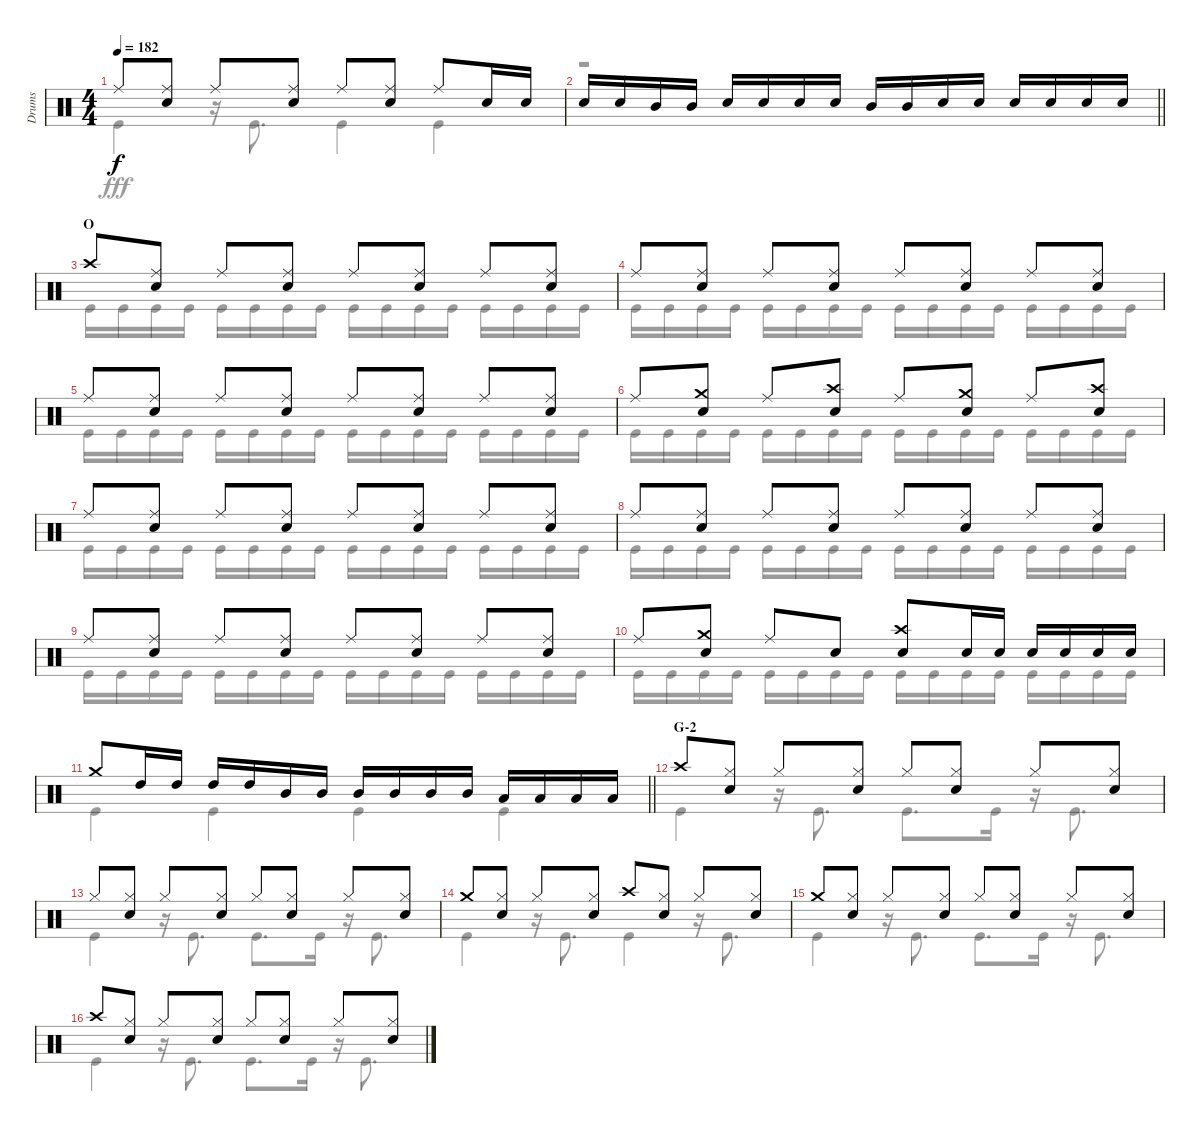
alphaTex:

\track ("Drums" "Drums") {instrument percussion}
\staff {score}
\articulation defaults
\voice
\ts (4 4)
\tempo 182
\clef neutral
\ks c "Ride (middle)".8{dy f}
("Ride (middle)" "Snare (hit) 2").8 "Ride (middle)".8 ("Ride (middle)" "Snare (hit) 2").8 "Ride (middle)".8 ("Ride (middle)" "Snare (hit) 2").8 "Ride (middle)".8 "Snare (hit) 2".16 "Snare (hit) 2".16 |
\barLineRight lightlight "Snare (hit) 2".16 "Snare (hit) 2".16 "Mid Tom (hit)".16 "Mid Tom (hit)".16 "Snare (hit) 2".16 "Snare (hit) 2".16 "Snare (hit) 2".16 "Snare (hit) 2".16 "Mid Tom (hit)".16 "Mid Tom (hit)".16 "Snare (hit) 2".16 "Snare (hit) 2".16 "Snare (hit) 2".16 "Snare (hit) 2".16 "Snare (hit) 2".16 "Snare (hit) 2".16
|
\section ("" "O")
"Crash high (hit)".8 ("Ride (middle)" "Snare (hit) 2").8 "Ride (middle)".8 ("Ride (middle)" "Snare (hit) 2").8 "Ride (middle)".8 ("Ride (middle)" "Snare (hit) 2").8 "Ride (middle)".8 ("Ride (middle)" "Snare (hit) 2").8 |
"Ride (middle)".8 ("Ride (middle)" "Snare (hit) 2").8 "Ride (middle)".8 ("Ride (middle)" "Snare (hit) 2").8 "Ride (middle)".8 ("Ride (middle)" "Snare (hit) 2").8 "Ride (middle)".8 ("Ride (middle)" "Snare (hit) 2").8 |
"Ride (middle)".8 ("Ride (middle)" "Snare (hit) 2").8 "Ride (middle)".8 ("Ride (middle)" "Snare (hit) 2").8 "Ride (middle)".8 ("Ride (middle)" "Snare (hit) 2").8 "Ride (middle)".8 ("Ride (middle)" "Snare (hit) 2").8 |
"Ride (middle)".8 ("Crash medium (hit)" "Snare (hit) 2").8 "Ride (middle)".8 ("Crash high (hit)" "Snare (hit) 2").8 "Ride (middle)".8 ("Crash medium (hit)" "Snare (hit) 2").8 "Ride (middle)".8 ("Crash high (hit)" "Snare (hit) 2").8 |
"Ride (middle)".8 ("Ride (middle)" "Snare (hit) 2").8 "Ride (middle)".8 ("Ride (middle)" "Snare (hit) 2").8 "Ride (middle)".8 ("Ride (middle)" "Snare (hit) 2").8 "Ride (middle)".8 ("Ride (middle)" "Snare (hit) 2").8 |
"Ride (middle)".8 ("Ride (middle)" "Snare (hit) 2").8 "Ride (middle)".8 ("Ride (middle)" "Snare (hit) 2").8 "Ride (middle)".8 ("Ride (middle)" "Snare (hit) 2").8 "Ride (middle)".8 ("Ride (middle)" "Snare (hit) 2").8 |
"Ride (middle)".8 ("Ride (middle)" "Snare (hit) 2").8 "Ride (middle)".8 ("Ride (middle)" "Snare (hit) 2").8 "Ride (middle)".8 ("Ride (middle)" "Snare (hit) 2").8 "Ride (middle)".8 ("Ride (middle)" "Snare (hit) 2").8 |
"Ride (middle)".8 ("Crash medium (hit)" "Snare (hit) 2").8 "Ride (middle)".8 "Snare (hit) 2".8 ("Crash high (hit)" "Snare (hit) 2").8 "Snare (hit) 2".16 "Snare (hit) 2".16 "Snare (hit) 2".16 "Snare (hit) 2".16 "Snare (hit) 2".16 "Snare (hit) 2".16 |
\barLineRight lightlight "Crash medium (hit)".8 "High Tom (hit)".16 "High Tom (hit)".16 "High Tom (hit)".16 "High Tom (hit)".16 "Mid Tom (hit)".16 "Mid Tom (hit)".16 "Mid Tom (hit)".16 "Mid Tom (hit)".16 "Mid Tom (hit)".16 "Mid Tom (hit)".16 "Low Tom (hit)".16 "Low Tom (hit)".16 "Low Tom (hit)".16 "Low Tom (hit)".16
|
\section ("" "G-2")
"Crash high (hit)".8 ("Hi-Hat (closed)" "Snare (hit) 2").8 "Hi-Hat (closed)".8 ("Hi-Hat (closed)" "Snare (hit) 2").8 "Hi-Hat (closed)".8 ("Hi-Hat (closed)" "Snare (hit) 2").8 "Hi-Hat (closed)".8 ("Hi-Hat (closed)" "Snare (hit) 2").8 |
"Hi-Hat (closed)".8 ("Hi-Hat (closed)" "Snare (hit) 2").8 "Hi-Hat (closed)".8 ("Hi-Hat (closed)" "Snare (hit) 2").8 "Hi-Hat (closed)".8 ("Hi-Hat (closed)" "Snare (hit) 2").8 "Hi-Hat (closed)".8 ("Hi-Hat (closed)" "Snare (hit) 2").8 |
"Crash medium (hit)".8 ("Hi-Hat (closed)" "Snare (hit) 2").8 "Hi-Hat (closed)".8 ("Hi-Hat (closed)" "Snare (hit) 2").8 "Crash high (hit)".8 ("Hi-Hat (closed)" "Snare (hit) 2").8 "Hi-Hat (closed)".8 ("Hi-Hat (closed)" "Snare (hit) 2").8 |
"Crash medium (hit)".8 ("Hi-Hat (closed)" "Snare (hit) 2").8 "Hi-Hat (closed)".8 ("Hi-Hat (closed)" "Snare (hit) 2").8 "Hi-Hat (closed)".8 ("Hi-Hat (closed)" "Snare (hit) 2").8 "Hi-Hat (closed)".8 ("Hi-Hat (closed)" "Snare (hit) 2").8 |
"Crash high (hit)".8 ("Hi-Hat (closed)" "Snare (hit) 2").8 "Hi-Hat (closed)".8 ("Hi-Hat (closed)" "Snare (hit) 2").8 "Hi-Hat (closed)".8 ("Hi-Hat (closed)" "Snare (hit) 2").8 "Hi-Hat (closed)".8 ("Hi-Hat (closed)" "Snare (hit) 2").8
\voice
\clef neutral
\ottava regular
\simile none
\ks c "Kick (hit)".4{dy fff}
r.16 "Kick (hit)".8{d} "Kick (hit)".4 "Kick (hit)".4 |
\barLineRight lightlight
r.1 |
"Kick (hit)".16 "Kick (hit)".16 "Kick (hit)".16 "Kick (hit)".16 "Kick (hit)".16 "Kick (hit)".16 "Kick (hit)".16 "Kick (hit)".16 "Kick (hit)".16 "Kick (hit)".16 "Kick (hit)".16 "Kick (hit)".16 "Kick (hit)".16 "Kick (hit)".16 "Kick (hit)".16 "Kick (hit)".16 |
"Kick (hit)".16 "Kick (hit)".16 "Kick (hit)".16 "Kick (hit)".16 "Kick (hit)".16 "Kick (hit)".16 "Kick (hit)".16 "Kick (hit)".16 "Kick (hit)".16 "Kick (hit)".16 "Kick (hit)".16 "Kick (hit)".16 "Kick (hit)".16 "Kick (hit)".16 "Kick (hit)".16 "Kick (hit)".16 |
"Kick (hit)".16 "Kick (hit)".16 "Kick (hit)".16 "Kick (hit)".16 "Kick (hit)".16 "Kick (hit)".16 "Kick (hit)".16 "Kick (hit)".16 "Kick (hit)".16 "Kick (hit)".16 "Kick (hit)".16 "Kick (hit)".16 "Kick (hit)".16 "Kick (hit)".16 "Kick (hit)".16 "Kick (hit)".16 |
"Kick (hit)".16 "Kick (hit)".16 "Kick (hit)".16 "Kick (hit)".16 "Kick (hit)".16 "Kick (hit)".16 "Kick (hit)".16 "Kick (hit)".16 "Kick (hit)".16 "Kick (hit)".16 "Kick (hit)".16 "Kick (hit)".16 "Kick (hit)".16 "Kick (hit)".16 "Kick (hit)".16 "Kick (hit)".16 |
"Kick (hit)".16 "Kick (hit)".16 "Kick (hit)".16 "Kick (hit)".16 "Kick (hit)".16 "Kick (hit)".16 "Kick (hit)".16 "Kick (hit)".16 "Kick (hit)".16 "Kick (hit)".16 "Kick (hit)".16 "Kick (hit)".16 "Kick (hit)".16 "Kick (hit)".16 "Kick (hit)".16 "Kick (hit)".16 |
"Kick (hit)".16 "Kick (hit)".16 "Kick (hit)".16 "Kick (hit)".16 "Kick (hit)".16 "Kick (hit)".16 "Kick (hit)".16 "Kick (hit)".16 "Kick (hit)".16 "Kick (hit)".16 "Kick (hit)".16 "Kick (hit)".16 "Kick (hit)".16 "Kick (hit)".16 "Kick (hit)".16 "Kick (hit)".16 |
"Kick (hit)".16 "Kick (hit)".16 "Kick (hit)".16 "Kick (hit)".16 "Kick (hit)".16 "Kick (hit)".16 "Kick (hit)".16 "Kick (hit)".16 "Kick (hit)".16 "Kick (hit)".16 "Kick (hit)".16 "Kick (hit)".16 "Kick (hit)".16 "Kick (hit)".16 "Kick (hit)".16 "Kick (hit)".16 |
"Kick (hit)".16 "Kick (hit)".16 "Kick (hit)".16 "Kick (hit)".16 "Kick (hit)".16 "Kick (hit)".16 "Kick (hit)".16 "Kick (hit)".16 "Kick (hit)".16 "Kick (hit)".16 "Kick (hit)".16 "Kick (hit)".16 "Kick (hit)".16 "Kick (hit)".16 "Kick (hit)".16 "Kick (hit)".16 |
\barLineRight lightlight "Kick (hit)".4 "Kick (hit)".4 "Kick (hit)".4 "Kick (hit)".4
|
"Kick (hit)".4 r.16 "Kick (hit)".8{d} "Kick (hit)".8{d} "Kick (hit)".16 r.16 "Kick (hit)".8{d} |
"Kick (hit)".4 r.16 "Kick (hit)".8{d} "Kick (hit)".8{d} "Kick (hit)".16 r.16 "Kick (hit)".8{d} |
"Kick (hit)".4 r.16 "Kick (hit)".8{d} "Kick (hit)".4 r.16 "Kick (hit)".8{d} |
"Kick (hit)".4 r.16 "Kick (hit)".8{d} "Kick (hit)".8{d} "Kick (hit)".16 r.16 "Kick (hit)".8{d} |
"Kick (hit)".4 r.16 "Kick (hit)".8{d} "Kick (hit)".8{d} "Kick (hit)".16 r.16 "Kick (hit)".8{d}
